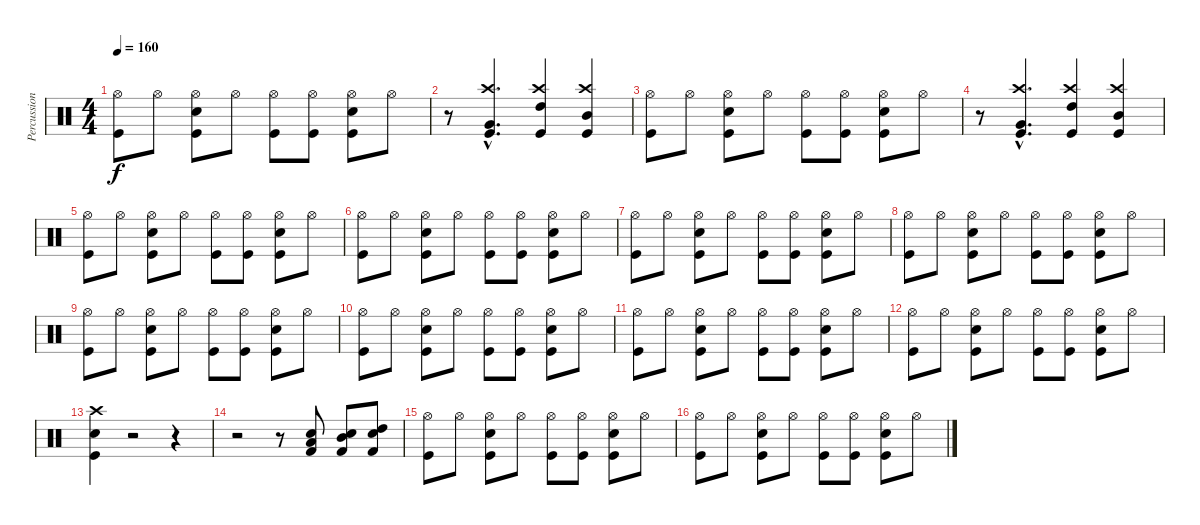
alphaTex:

\track ("Percussions" "Percussion") {instrument percussion}
\staff {score}
\articulation defaults
\ts (4 4)
\tempo 160
\clef neutral
\ks c
("Hi-Hat (open)" "Kick (hit)").8{dy f} "Hi-Hat (open)".8 ("Hi-Hat (open)" "Electric Snare (hit)" "Kick (hit)").8 "Hi-Hat (open)".8 ("Hi-Hat (open)" "Kick (hit)").8 ("Hi-Hat (open)" "Kick (hit)").8 ("Hi-Hat (open)" "Electric Snare (hit)" "Kick (hit)").8 "Hi-Hat (open)".8 |
r.8 ("Crash high (hit)"{hac} "Very Low Tom (hit)"{hac} "Kick (hit)"{hac}).4{d} ("Crash high (hit)" "High Tom (hit)" "Kick (hit)").4 ("Crash high (hit)" "Mid Tom (hit)" "Kick (hit)").4 |
("Hi-Hat (open)" "Kick (hit)").8 "Hi-Hat (open)".8 ("Hi-Hat (open)" "Electric Snare (hit)" "Kick (hit)").8 "Hi-Hat (open)".8 ("Hi-Hat (open)" "Kick (hit)").8 ("Hi-Hat (open)" "Kick (hit)").8 ("Hi-Hat (open)" "Electric Snare (hit)" "Kick (hit)").8 "Hi-Hat (open)".8 |
r.8 ("Crash high (hit)"{hac} "Very Low Tom (hit)"{hac} "Kick (hit)"{hac}).4{d} ("Crash high (hit)" "High Tom (hit)" "Kick (hit)").4 ("Crash high (hit)" "Mid Tom (hit)" "Kick (hit)").4 |
("Hi-Hat (open)" "Kick (hit)").8 "Hi-Hat (open)".8 ("Hi-Hat (open)" "Electric Snare (hit)" "Kick (hit)").8 "Hi-Hat (open)".8 ("Hi-Hat (open)" "Kick (hit)").8 ("Hi-Hat (open)" "Kick (hit)").8 ("Hi-Hat (open)" "Electric Snare (hit)" "Kick (hit)").8 "Hi-Hat (open)".8 |
("Hi-Hat (open)" "Kick (hit)").8 "Hi-Hat (open)".8 ("Hi-Hat (open)" "Electric Snare (hit)" "Kick (hit)").8 "Hi-Hat (open)".8 ("Hi-Hat (open)" "Kick (hit)").8 ("Hi-Hat (open)" "Kick (hit)").8 ("Hi-Hat (open)" "Electric Snare (hit)" "Kick (hit)").8 "Hi-Hat (open)".8 |
("Hi-Hat (open)" "Kick (hit)").8 "Hi-Hat (open)".8 ("Hi-Hat (open)" "Electric Snare (hit)" "Kick (hit)").8 "Hi-Hat (open)".8 ("Hi-Hat (open)" "Kick (hit)").8 ("Hi-Hat (open)" "Kick (hit)").8 ("Hi-Hat (open)" "Electric Snare (hit)" "Kick (hit)").8 "Hi-Hat (open)".8 |
("Hi-Hat (open)" "Kick (hit)").8 "Hi-Hat (open)".8 ("Hi-Hat (open)" "Electric Snare (hit)" "Kick (hit)").8 "Hi-Hat (open)".8 ("Hi-Hat (open)" "Kick (hit)").8 ("Hi-Hat (open)" "Kick (hit)").8 ("Hi-Hat (open)" "Electric Snare (hit)" "Kick (hit)").8 "Hi-Hat (open)".8 |
("Hi-Hat (open)" "Kick (hit)").8 "Hi-Hat (open)".8 ("Hi-Hat (open)" "Electric Snare (hit)" "Kick (hit)").8 "Hi-Hat (open)".8 ("Hi-Hat (open)" "Kick (hit)").8 ("Hi-Hat (open)" "Kick (hit)").8 ("Hi-Hat (open)" "Electric Snare (hit)" "Kick (hit)").8 "Hi-Hat (open)".8 |
("Hi-Hat (open)" "Kick (hit)").8 "Hi-Hat (open)".8 ("Hi-Hat (open)" "Electric Snare (hit)" "Kick (hit)").8 "Hi-Hat (open)".8 ("Hi-Hat (open)" "Kick (hit)").8 ("Hi-Hat (open)" "Kick (hit)").8 ("Hi-Hat (open)" "Electric Snare (hit)" "Kick (hit)").8 "Hi-Hat (open)".8 |
("Hi-Hat (open)" "Kick (hit)").8 "Hi-Hat (open)".8 ("Hi-Hat (open)" "Electric Snare (hit)" "Kick (hit)").8 "Hi-Hat (open)".8 ("Hi-Hat (open)" "Kick (hit)").8 ("Hi-Hat (open)" "Kick (hit)").8 ("Hi-Hat (open)" "Electric Snare (hit)" "Kick (hit)").8 "Hi-Hat (open)".8 |
("Hi-Hat (open)" "Kick (hit)").8 "Hi-Hat (open)".8 ("Hi-Hat (open)" "Electric Snare (hit)" "Kick (hit)").8 "Hi-Hat (open)".8 ("Hi-Hat (open)" "Kick (hit)").8 ("Hi-Hat (open)" "Kick (hit)").8 ("Hi-Hat (open)" "Electric Snare (hit)" "Kick (hit)").8 "Hi-Hat (open)".8 |
("Crash high (hit)" "Electric Snare (hit)" "Kick (hit)").4 r.2 r.4 |
r.2 r.8 ("Low Tom (hit)" "Snare (hit) 2" "Kick (hit) 2").8 ("Mid Tom (hit)" "Snare (hit) 2" "Kick (hit) 2").8 ("High Tom (hit)" "Snare (hit) 2" "Kick (hit) 2").8 |
("Hi-Hat (open)" "Kick (hit)").8 "Hi-Hat (open)".8 ("Hi-Hat (open)" "Electric Snare (hit)" "Kick (hit)").8 "Hi-Hat (open)".8 ("Hi-Hat (open)" "Kick (hit)").8 ("Hi-Hat (open)" "Kick (hit)").8 ("Hi-Hat (open)" "Electric Snare (hit)" "Kick (hit)").8 "Hi-Hat (open)".8 |
("Hi-Hat (open)" "Kick (hit)").8 "Hi-Hat (open)".8 ("Hi-Hat (open)" "Electric Snare (hit)" "Kick (hit)").8 "Hi-Hat (open)".8 ("Hi-Hat (open)" "Kick (hit)").8 ("Hi-Hat (open)" "Kick (hit)").8 ("Hi-Hat (open)" "Electric Snare (hit)" "Kick (hit)").8 "Hi-Hat (open)".8
